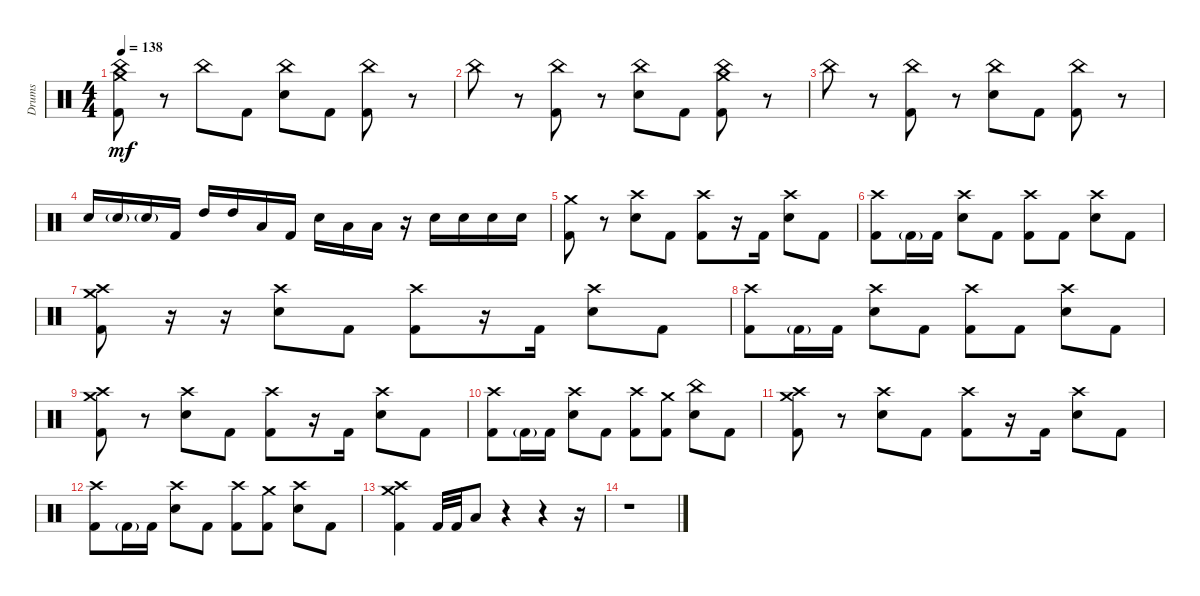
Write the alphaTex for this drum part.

\track ("Drums" "Drums") {instrument percussion}
\staff {score}
\articulation defaults
\ts (4 4)
\tempo 138
\clef neutral
\ks c
("China (hit)" "Crash medium (hit)" "Kick (hit) 2").8{dy mf} r.8 "China (hit)".8 "Kick (hit) 2".8 ("China (hit)" "Snare (hit) 2").8 "Kick (hit) 2".8 ("China (hit)" "Kick (hit) 2").8 r.8 |
"China (hit)".8 r.8 ("China (hit)" "Kick (hit) 2").8 r.8 ("China (hit)" "Snare (hit) 2").8 "Kick (hit) 2".8 ("China (hit)" "Crash medium (hit)" "Kick (hit) 2").8 r.8 |
"China (hit)".8 r.8 ("China (hit)" "Kick (hit) 2").8 r.8 ("China (hit)" "Snare (hit) 2").8 "Kick (hit) 2".8 ("China (hit)" "Kick (hit) 2").8 r.8 |
"Snare (hit) 2".16 "Snare (hit) 2"{g}.16 "Snare (hit) 2"{g}.16 "Kick (hit) 2".16 "High Tom (hit)".16 "High Tom (hit)".16 "Low Tom (hit)".16 "Kick (hit) 2".16 "Snare (hit) 2".16 "Low Tom (hit)".16 "Low Tom (hit)".16 r.16 "Snare (hit) 2".16 "Snare (hit) 2".16 "Snare (hit) 2".16 "Snare (hit) 2".16 |
("Crash medium (hit)" "Kick (hit) 2").8 r.8 ("Crash high (hit)" "Snare (hit) 2").8 "Kick (hit) 2".8 ("Crash high (hit)" "Kick (hit) 2").8 r.16 "Kick (hit) 2".16 ("Crash high (hit)" "Snare (hit) 2").8 "Kick (hit) 2".8 |
("Crash high (hit)" "Kick (hit) 2").8 "Kick (hit) 2"{g}.16 "Kick (hit) 2".16 ("Crash high (hit)" "Snare (hit) 2").8 "Kick (hit) 2".8 ("Crash high (hit)" "Kick (hit) 2").8 "Kick (hit) 2".8 ("Crash high (hit)" "Snare (hit) 2").8 "Kick (hit) 2".8 |
("Crash high (hit)" "Crash medium (hit)" "Kick (hit) 2").8 r.16 r.16 ("Crash high (hit)" "Snare (hit) 2").8 "Kick (hit) 2".8 ("Crash high (hit)" "Kick (hit) 2").8 r.16 "Kick (hit) 2".16 ("Crash high (hit)" "Snare (hit) 2").8 "Kick (hit) 2".8 |
("Crash high (hit)" "Kick (hit) 2").8 "Kick (hit) 2"{g}.16 "Kick (hit) 2".16 ("Crash high (hit)" "Snare (hit) 2").8 "Kick (hit) 2".8 ("Crash high (hit)" "Kick (hit) 2").8 "Kick (hit) 2".8 ("Crash high (hit)" "Snare (hit) 2").8 "Kick (hit) 2".8 |
("Crash medium (hit)" "Crash high (hit)" "Kick (hit) 2").8 r.8 ("Crash high (hit)" "Snare (hit) 2").8 "Kick (hit) 2".8 ("Crash high (hit)" "Kick (hit) 2").8 r.16 "Kick (hit) 2".16 ("Crash high (hit)" "Snare (hit) 2").8 "Kick (hit) 2".8 |
("Crash high (hit)" "Kick (hit) 2").8 "Kick (hit) 2"{g}.16 "Kick (hit) 2".16 ("Crash high (hit)" "Snare (hit) 2").8 "Kick (hit) 2".8 ("Crash high (hit)" "Kick (hit) 2").8 ("Crash medium (hit)" "Kick (hit) 2").8 ("China (hit)" "Snare (hit) 2").8 "Kick (hit) 2".8 |
("Crash medium (hit)" "Crash high (hit)" "Kick (hit) 2").8 r.8 ("Crash high (hit)" "Snare (hit) 2").8 "Kick (hit) 2".8 ("Crash high (hit)" "Kick (hit) 2").8 r.16 "Kick (hit) 2".16 ("Crash high (hit)" "Snare (hit) 2").8 "Kick (hit) 2".8 |
("Crash high (hit)" "Kick (hit) 2").8 "Kick (hit) 2"{g}.16 "Kick (hit) 2".16 ("Crash high (hit)" "Snare (hit) 2").8 "Kick (hit) 2".8 ("Crash high (hit)" "Kick (hit) 2").8 ("Crash medium (hit)" "Kick (hit) 2").8 ("Crash high (hit)" "Snare (hit) 2").8 "Kick (hit) 2".8 |
("Crash medium (hit)" "Crash high (hit)" "Kick (hit) 2").4 "Kick (hit) 2".32 "Kick (hit) 2".32 "Low Tom (hit)".8 r.4 r.4 r.16 |
r.1
